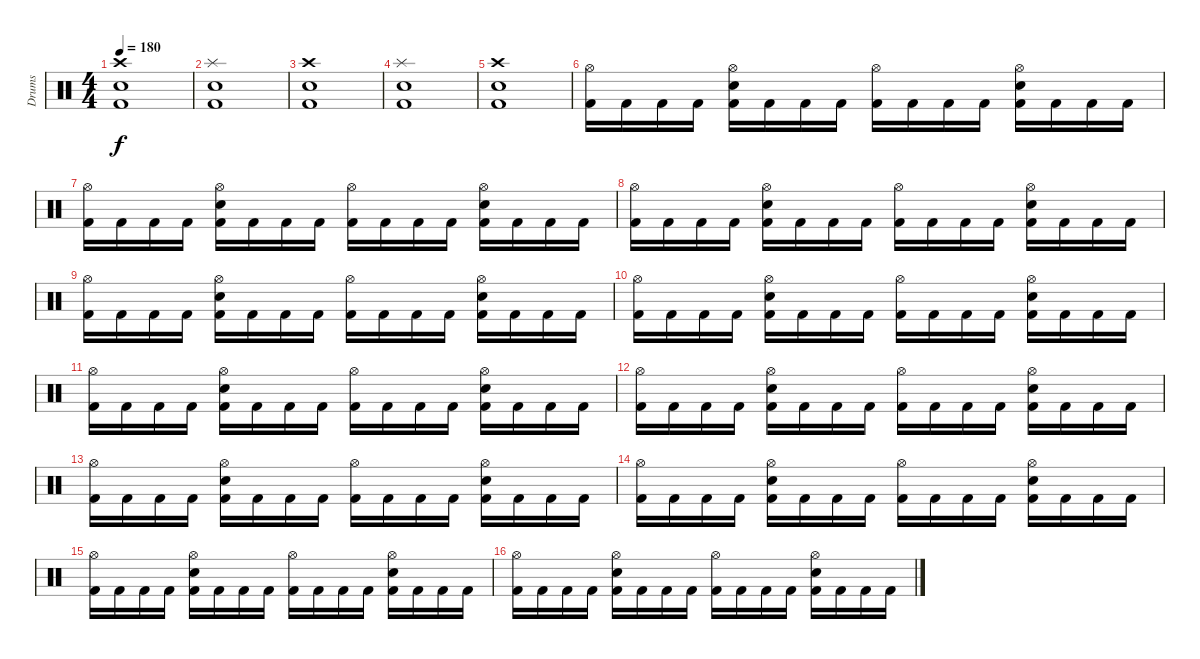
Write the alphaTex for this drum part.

\track ("Drums" "Drums") {instrument percussion}
\staff {score}
\articulation defaults
\ts (4 4)
\tempo 180
\clef neutral
\ks c
("Crash high (hit)" "Snare (hit) 2" "Kick (hit) 2").1{dy f} |
("Splash (hit)" "Snare (hit) 2" "Kick (hit) 2").1 |
("Crash high (hit)" "Snare (hit) 2" "Kick (hit) 2").1 |
("Splash (hit)" "Snare (hit) 2" "Kick (hit) 2").1 |
("Crash high (hit)" "Snare (hit) 2" "Kick (hit) 2").1 |
("Hi-Hat (open)" "Kick (hit) 2").16 "Kick (hit) 2".16 "Kick (hit) 2".16 "Kick (hit) 2".16 ("Hi-Hat (open)" "Snare (hit) 2" "Kick (hit) 2").16 "Kick (hit) 2".16 "Kick (hit) 2".16 "Kick (hit) 2".16 ("Hi-Hat (open)" "Kick (hit) 2").16 "Kick (hit) 2".16 "Kick (hit) 2".16 "Kick (hit) 2".16 ("Hi-Hat (open)" "Snare (hit) 2" "Kick (hit) 2").16 "Kick (hit) 2".16 "Kick (hit) 2".16 "Kick (hit) 2".16 |
("Hi-Hat (open)" "Kick (hit) 2").16 "Kick (hit) 2".16 "Kick (hit) 2".16 "Kick (hit) 2".16 ("Hi-Hat (open)" "Snare (hit) 2" "Kick (hit) 2").16 "Kick (hit) 2".16 "Kick (hit) 2".16 "Kick (hit) 2".16 ("Hi-Hat (open)" "Kick (hit) 2").16 "Kick (hit) 2".16 "Kick (hit) 2".16 "Kick (hit) 2".16 ("Hi-Hat (open)" "Snare (hit) 2" "Kick (hit) 2").16 "Kick (hit) 2".16 "Kick (hit) 2".16 "Kick (hit) 2".16 |
("Hi-Hat (open)" "Kick (hit) 2").16 "Kick (hit) 2".16 "Kick (hit) 2".16 "Kick (hit) 2".16 ("Hi-Hat (open)" "Snare (hit) 2" "Kick (hit) 2").16 "Kick (hit) 2".16 "Kick (hit) 2".16 "Kick (hit) 2".16 ("Hi-Hat (open)" "Kick (hit) 2").16 "Kick (hit) 2".16 "Kick (hit) 2".16 "Kick (hit) 2".16 ("Hi-Hat (open)" "Snare (hit) 2" "Kick (hit) 2").16 "Kick (hit) 2".16 "Kick (hit) 2".16 "Kick (hit) 2".16 |
("Hi-Hat (open)" "Kick (hit) 2").16 "Kick (hit) 2".16 "Kick (hit) 2".16 "Kick (hit) 2".16 ("Hi-Hat (open)" "Snare (hit) 2" "Kick (hit) 2").16 "Kick (hit) 2".16 "Kick (hit) 2".16 "Kick (hit) 2".16 ("Hi-Hat (open)" "Kick (hit) 2").16 "Kick (hit) 2".16 "Kick (hit) 2".16 "Kick (hit) 2".16 ("Hi-Hat (open)" "Snare (hit) 2" "Kick (hit) 2").16 "Kick (hit) 2".16 "Kick (hit) 2".16 "Kick (hit) 2".16 |
("Hi-Hat (open)" "Kick (hit) 2").16 "Kick (hit) 2".16 "Kick (hit) 2".16 "Kick (hit) 2".16 ("Hi-Hat (open)" "Snare (hit) 2" "Kick (hit) 2").16 "Kick (hit) 2".16 "Kick (hit) 2".16 "Kick (hit) 2".16 ("Hi-Hat (open)" "Kick (hit) 2").16 "Kick (hit) 2".16 "Kick (hit) 2".16 "Kick (hit) 2".16 ("Hi-Hat (open)" "Snare (hit) 2" "Kick (hit) 2").16 "Kick (hit) 2".16 "Kick (hit) 2".16 "Kick (hit) 2".16 |
("Hi-Hat (open)" "Kick (hit) 2").16 "Kick (hit) 2".16 "Kick (hit) 2".16 "Kick (hit) 2".16 ("Hi-Hat (open)" "Snare (hit) 2" "Kick (hit) 2").16 "Kick (hit) 2".16 "Kick (hit) 2".16 "Kick (hit) 2".16 ("Hi-Hat (open)" "Kick (hit) 2").16 "Kick (hit) 2".16 "Kick (hit) 2".16 "Kick (hit) 2".16 ("Hi-Hat (open)" "Snare (hit) 2" "Kick (hit) 2").16 "Kick (hit) 2".16 "Kick (hit) 2".16 "Kick (hit) 2".16 |
("Hi-Hat (open)" "Kick (hit) 2").16 "Kick (hit) 2".16 "Kick (hit) 2".16 "Kick (hit) 2".16 ("Hi-Hat (open)" "Snare (hit) 2" "Kick (hit) 2").16 "Kick (hit) 2".16 "Kick (hit) 2".16 "Kick (hit) 2".16 ("Hi-Hat (open)" "Kick (hit) 2").16 "Kick (hit) 2".16 "Kick (hit) 2".16 "Kick (hit) 2".16 ("Hi-Hat (open)" "Snare (hit) 2" "Kick (hit) 2").16 "Kick (hit) 2".16 "Kick (hit) 2".16 "Kick (hit) 2".16 |
("Hi-Hat (open)" "Kick (hit) 2").16 "Kick (hit) 2".16 "Kick (hit) 2".16 "Kick (hit) 2".16 ("Hi-Hat (open)" "Snare (hit) 2" "Kick (hit) 2").16 "Kick (hit) 2".16 "Kick (hit) 2".16 "Kick (hit) 2".16 ("Hi-Hat (open)" "Kick (hit) 2").16 "Kick (hit) 2".16 "Kick (hit) 2".16 "Kick (hit) 2".16 ("Hi-Hat (open)" "Snare (hit) 2" "Kick (hit) 2").16 "Kick (hit) 2".16 "Kick (hit) 2".16 "Kick (hit) 2".16 |
("Hi-Hat (open)" "Kick (hit) 2").16 "Kick (hit) 2".16 "Kick (hit) 2".16 "Kick (hit) 2".16 ("Hi-Hat (open)" "Snare (hit) 2" "Kick (hit) 2").16 "Kick (hit) 2".16 "Kick (hit) 2".16 "Kick (hit) 2".16 ("Hi-Hat (open)" "Kick (hit) 2").16 "Kick (hit) 2".16 "Kick (hit) 2".16 "Kick (hit) 2".16 ("Hi-Hat (open)" "Snare (hit) 2" "Kick (hit) 2").16 "Kick (hit) 2".16 "Kick (hit) 2".16 "Kick (hit) 2".16 |
("Hi-Hat (open)" "Kick (hit) 2").16 "Kick (hit) 2".16 "Kick (hit) 2".16 "Kick (hit) 2".16 ("Hi-Hat (open)" "Snare (hit) 2" "Kick (hit) 2").16 "Kick (hit) 2".16 "Kick (hit) 2".16 "Kick (hit) 2".16 ("Hi-Hat (open)" "Kick (hit) 2").16 "Kick (hit) 2".16 "Kick (hit) 2".16 "Kick (hit) 2".16 ("Hi-Hat (open)" "Snare (hit) 2" "Kick (hit) 2").16 "Kick (hit) 2".16 "Kick (hit) 2".16 "Kick (hit) 2".16 |
("Hi-Hat (open)" "Kick (hit) 2").16 "Kick (hit) 2".16 "Kick (hit) 2".16 "Kick (hit) 2".16 ("Hi-Hat (open)" "Snare (hit) 2" "Kick (hit) 2").16 "Kick (hit) 2".16 "Kick (hit) 2".16 "Kick (hit) 2".16 ("Hi-Hat (open)" "Kick (hit) 2").16 "Kick (hit) 2".16 "Kick (hit) 2".16 "Kick (hit) 2".16 ("Hi-Hat (open)" "Snare (hit) 2" "Kick (hit) 2").16 "Kick (hit) 2".16 "Kick (hit) 2".16 "Kick (hit) 2".16
